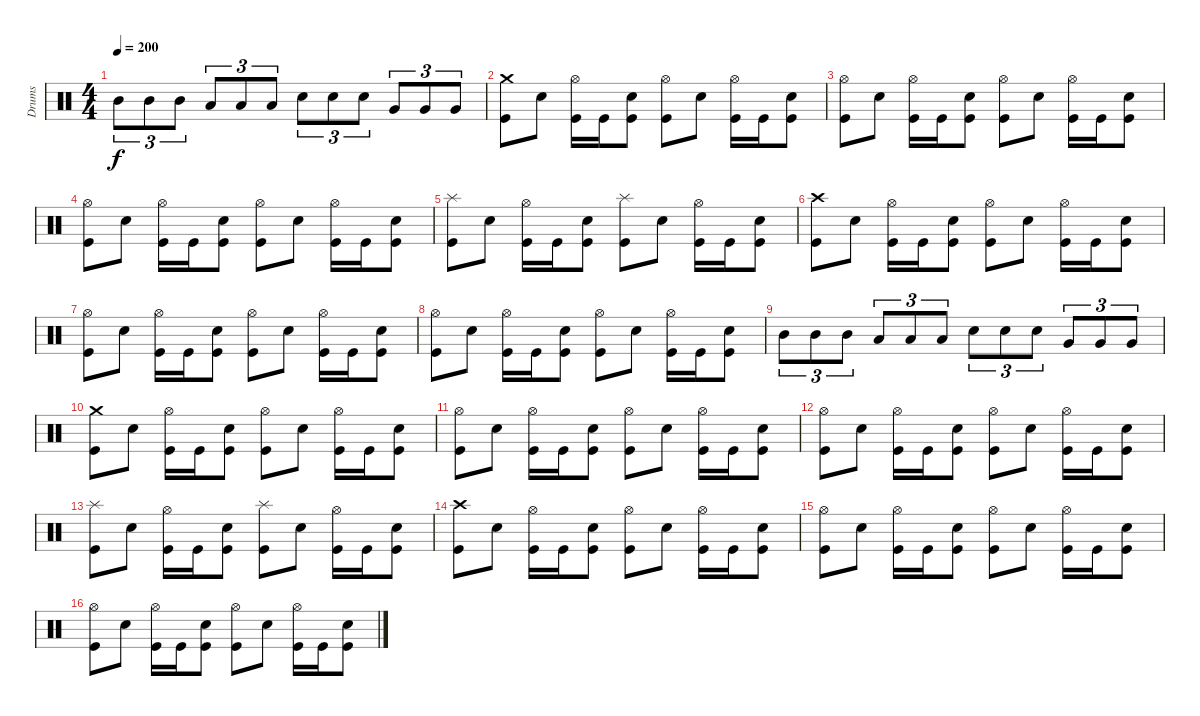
\track ("Drums" "Drums") {instrument percussion}
\staff {score}
\articulation defaults
\ts (4 4)
\tempo 200
\clef neutral
\ks c "Mid Tom (hit)".8{tu (3 2) dy f} "Mid Tom (hit)".8{tu (3 2)} "Mid Tom (hit)".8{tu (3 2)} "Low Tom (hit)".8{tu (3 2)} "Low Tom (hit)".8{tu (3 2)} "Low Tom (hit)".8{tu (3 2)} "Snare (hit) 2".8{tu (3 2)} "Snare (hit) 2".8{tu (3 2)} "Snare (hit) 2".8{tu (3 2)} "Very Low Tom (hit)".8{tu (3 2)} "Very Low Tom (hit)".8{tu (3 2)} "Very Low Tom (hit)".8{tu (3 2)}
|
("Crash medium (hit)" "Kick (hit)").8 "Snare (hit) 2".8 ("Hi-Hat (open)" "Kick (hit)").16 "Kick (hit)".16 ("Snare (hit) 2" "Kick (hit)").8 ("Hi-Hat (open)" "Kick (hit)").8 "Snare (hit) 2".8 ("Hi-Hat (open)" "Kick (hit)").16 "Kick (hit)".16 ("Snare (hit) 2" "Kick (hit)").8 |
("Hi-Hat (open)" "Kick (hit)").8 "Snare (hit) 2".8 ("Hi-Hat (open)" "Kick (hit)").16 "Kick (hit)".16 ("Snare (hit) 2" "Kick (hit)").8 ("Hi-Hat (open)" "Kick (hit)").8 "Snare (hit) 2".8 ("Hi-Hat (open)" "Kick (hit)").16 "Kick (hit)".16 ("Snare (hit) 2" "Kick (hit)").8 |
("Hi-Hat (open)" "Kick (hit)").8 "Snare (hit) 2".8 ("Hi-Hat (open)" "Kick (hit)").16 "Kick (hit)".16 ("Snare (hit) 2" "Kick (hit)").8 ("Hi-Hat (open)" "Kick (hit)").8 "Snare (hit) 2".8 ("Hi-Hat (open)" "Kick (hit)").16 "Kick (hit)".16 ("Snare (hit) 2" "Kick (hit)").8 |
("Splash (hit)" "Kick (hit)").8 "Snare (hit) 2".8 ("Hi-Hat (open)" "Kick (hit)").16 "Kick (hit)".16 ("Snare (hit) 2" "Kick (hit)").8 ("Splash (hit)" "Kick (hit)").8 "Snare (hit) 2".8 ("Hi-Hat (open)" "Kick (hit)").16 "Kick (hit)".16 ("Snare (hit) 2" "Kick (hit)").8 |
("Crash high (hit)" "Kick (hit)").8 "Snare (hit) 2".8 ("Hi-Hat (open)" "Kick (hit)").16 "Kick (hit)".16 ("Snare (hit) 2" "Kick (hit)").8 ("Hi-Hat (open)" "Kick (hit)").8 "Snare (hit) 2".8 ("Hi-Hat (open)" "Kick (hit)").16 "Kick (hit)".16 ("Snare (hit) 2" "Kick (hit)").8 |
("Hi-Hat (open)" "Kick (hit)").8 "Snare (hit) 2".8 ("Hi-Hat (open)" "Kick (hit)").16 "Kick (hit)".16 ("Snare (hit) 2" "Kick (hit)").8 ("Hi-Hat (open)" "Kick (hit)").8 "Snare (hit) 2".8 ("Hi-Hat (open)" "Kick (hit)").16 "Kick (hit)".16 ("Snare (hit) 2" "Kick (hit)").8 |
("Hi-Hat (open)" "Kick (hit)").8 "Snare (hit) 2".8 ("Hi-Hat (open)" "Kick (hit)").16 "Kick (hit)".16 ("Snare (hit) 2" "Kick (hit)").8 ("Hi-Hat (open)" "Kick (hit)").8 "Snare (hit) 2".8 ("Hi-Hat (open)" "Kick (hit)").16 "Kick (hit)".16 ("Snare (hit) 2" "Kick (hit)").8 |
"Mid Tom (hit)".8{tu (3 2)} "Mid Tom (hit)".8{tu (3 2)} "Mid Tom (hit)".8{tu (3 2)} "Low Tom (hit)".8{tu (3 2)} "Low Tom (hit)".8{tu (3 2)} "Low Tom (hit)".8{tu (3 2)} "Snare (hit) 2".8{tu (3 2)} "Snare (hit) 2".8{tu (3 2)} "Snare (hit) 2".8{tu (3 2)} "Very Low Tom (hit)".8{tu (3 2)} "Very Low Tom (hit)".8{tu (3 2)} "Very Low Tom (hit)".8{tu (3 2)} |
("Crash medium (hit)" "Kick (hit)").8 "Snare (hit) 2".8 ("Hi-Hat (open)" "Kick (hit)").16 "Kick (hit)".16 ("Snare (hit) 2" "Kick (hit)").8 ("Hi-Hat (open)" "Kick (hit)").8 "Snare (hit) 2".8 ("Hi-Hat (open)" "Kick (hit)").16 "Kick (hit)".16 ("Snare (hit) 2" "Kick (hit)").8 |
("Hi-Hat (open)" "Kick (hit)").8 "Snare (hit) 2".8 ("Hi-Hat (open)" "Kick (hit)").16 "Kick (hit)".16 ("Snare (hit) 2" "Kick (hit)").8 ("Hi-Hat (open)" "Kick (hit)").8 "Snare (hit) 2".8 ("Hi-Hat (open)" "Kick (hit)").16 "Kick (hit)".16 ("Snare (hit) 2" "Kick (hit)").8 |
("Hi-Hat (open)" "Kick (hit)").8 "Snare (hit) 2".8 ("Hi-Hat (open)" "Kick (hit)").16 "Kick (hit)".16 ("Snare (hit) 2" "Kick (hit)").8 ("Hi-Hat (open)" "Kick (hit)").8 "Snare (hit) 2".8 ("Hi-Hat (open)" "Kick (hit)").16 "Kick (hit)".16 ("Snare (hit) 2" "Kick (hit)").8 |
("Splash (hit)" "Kick (hit)").8 "Snare (hit) 2".8 ("Hi-Hat (open)" "Kick (hit)").16 "Kick (hit)".16 ("Snare (hit) 2" "Kick (hit)").8 ("Splash (hit)" "Kick (hit)").8 "Snare (hit) 2".8 ("Hi-Hat (open)" "Kick (hit)").16 "Kick (hit)".16 ("Snare (hit) 2" "Kick (hit)").8 |
("Crash high (hit)" "Kick (hit)").8 "Snare (hit) 2".8 ("Hi-Hat (open)" "Kick (hit)").16 "Kick (hit)".16 ("Snare (hit) 2" "Kick (hit)").8 ("Hi-Hat (open)" "Kick (hit)").8 "Snare (hit) 2".8 ("Hi-Hat (open)" "Kick (hit)").16 "Kick (hit)".16 ("Snare (hit) 2" "Kick (hit)").8 |
("Hi-Hat (open)" "Kick (hit)").8 "Snare (hit) 2".8 ("Hi-Hat (open)" "Kick (hit)").16 "Kick (hit)".16 ("Snare (hit) 2" "Kick (hit)").8 ("Hi-Hat (open)" "Kick (hit)").8 "Snare (hit) 2".8 ("Hi-Hat (open)" "Kick (hit)").16 "Kick (hit)".16 ("Snare (hit) 2" "Kick (hit)").8 |
("Hi-Hat (open)" "Kick (hit)").8 "Snare (hit) 2".8 ("Hi-Hat (open)" "Kick (hit)").16 "Kick (hit)".16 ("Snare (hit) 2" "Kick (hit)").8 ("Hi-Hat (open)" "Kick (hit)").8 "Snare (hit) 2".8 ("Hi-Hat (open)" "Kick (hit)").16 "Kick (hit)".16 ("Snare (hit) 2" "Kick (hit)").8
